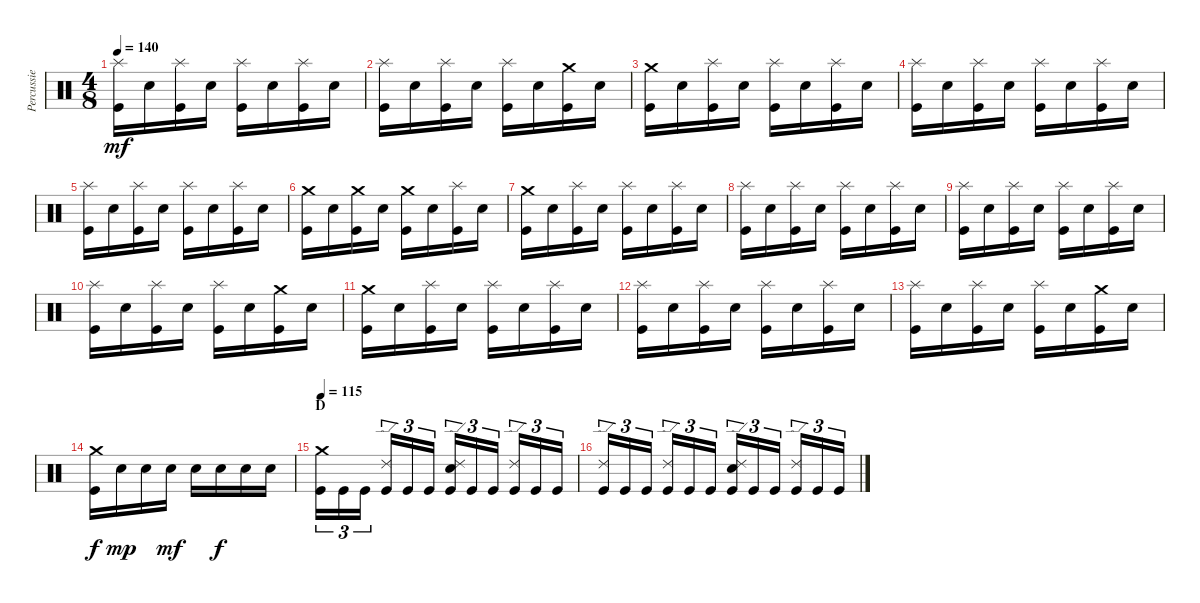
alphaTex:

\track ("Percussie" "Percussie") {instrument percussion}
\staff {score}
\articulation defaults
\ts (4 8)
\tempo 140
\clef neutral
\ks c
("Splash (hit)" "Kick (hit)").16{dy mf} "Electric Snare (hit)".16 ("Splash (hit)" "Kick (hit)").16 "Electric Snare (hit)".16 ("Splash (hit)" "Kick (hit)").16 "Electric Snare (hit)".16 ("Splash (hit)" "Kick (hit)").16 "Electric Snare (hit)".16 |
("Splash (hit)" "Kick (hit)").16 "Electric Snare (hit)".16 ("Splash (hit)" "Kick (hit)").16 "Electric Snare (hit)".16 ("Splash (hit)" "Kick (hit)").16 "Electric Snare (hit)".16 ("Crash medium (hit)" "Kick (hit)").16 "Electric Snare (hit)".16 |
("Crash medium (hit)" "Kick (hit)").16 "Electric Snare (hit)".16 ("Splash (hit)" "Kick (hit)").16 "Electric Snare (hit)".16 ("Splash (hit)" "Kick (hit)").16 "Electric Snare (hit)".16 ("Splash (hit)" "Kick (hit)").16 "Electric Snare (hit)".16 |
("Splash (hit)" "Kick (hit)").16 "Electric Snare (hit)".16 ("Splash (hit)" "Kick (hit)").16 "Electric Snare (hit)".16 ("Splash (hit)" "Kick (hit)").16 "Electric Snare (hit)".16 ("Splash (hit)" "Kick (hit)").16 "Electric Snare (hit)".16 |
("Splash (hit)" "Kick (hit)").16 "Electric Snare (hit)".16 ("Splash (hit)" "Kick (hit)").16 "Electric Snare (hit)".16 ("Splash (hit)" "Kick (hit)").16 "Electric Snare (hit)".16 ("Splash (hit)" "Kick (hit)").16 "Electric Snare (hit)".16 |
("Crash medium (hit)" "Kick (hit)").16 "Electric Snare (hit)".16 ("Crash medium (hit)" "Kick (hit)").16 "Electric Snare (hit)".16 ("Crash medium (hit)" "Kick (hit)").16 "Electric Snare (hit)".16 ("Splash (hit)" "Kick (hit)").16 "Electric Snare (hit)".16 |
("Crash medium (hit)" "Kick (hit)").16 "Electric Snare (hit)".16 ("Splash (hit)" "Kick (hit)").16 "Electric Snare (hit)".16 ("Splash (hit)" "Kick (hit)").16 "Electric Snare (hit)".16 ("Splash (hit)" "Kick (hit)").16 "Electric Snare (hit)".16 |
("Splash (hit)" "Kick (hit)").16 "Electric Snare (hit)".16 ("Splash (hit)" "Kick (hit)").16 "Electric Snare (hit)".16 ("Splash (hit)" "Kick (hit)").16 "Electric Snare (hit)".16 ("Splash (hit)" "Kick (hit)").16 "Electric Snare (hit)".16 |
("Splash (hit)" "Kick (hit)").16 "Electric Snare (hit)".16 ("Splash (hit)" "Kick (hit)").16 "Electric Snare (hit)".16 ("Splash (hit)" "Kick (hit)").16 "Electric Snare (hit)".16 ("Splash (hit)" "Kick (hit)").16 "Electric Snare (hit)".16 |
("Splash (hit)" "Kick (hit)").16 "Electric Snare (hit)".16 ("Splash (hit)" "Kick (hit)").16 "Electric Snare (hit)".16 ("Splash (hit)" "Kick (hit)").16 "Electric Snare (hit)".16 ("Crash medium (hit)" "Kick (hit)").16 "Electric Snare (hit)".16 |
("Crash medium (hit)" "Kick (hit)").16 "Electric Snare (hit)".16 ("Splash (hit)" "Kick (hit)").16 "Electric Snare (hit)".16 ("Splash (hit)" "Kick (hit)").16 "Electric Snare (hit)".16 ("Splash (hit)" "Kick (hit)").16 "Electric Snare (hit)".16 |
("Splash (hit)" "Kick (hit)").16 "Electric Snare (hit)".16 ("Splash (hit)" "Kick (hit)").16 "Electric Snare (hit)".16 ("Splash (hit)" "Kick (hit)").16 "Electric Snare (hit)".16 ("Splash (hit)" "Kick (hit)").16 "Electric Snare (hit)".16 |
("Splash (hit)" "Kick (hit)").16 "Electric Snare (hit)".16 ("Splash (hit)" "Kick (hit)").16 "Electric Snare (hit)".16 ("Splash (hit)" "Kick (hit)").16 "Electric Snare (hit)".16 ("Crash medium (hit)" "Kick (hit)").16 "Electric Snare (hit)".16 |
("Crash medium (hit)" "Kick (hit)").16{dy f} "Electric Snare (hit)".16{dy mp} "Electric Snare (hit)".16 "Electric Snare (hit)".16{dy mf} "Electric Snare (hit)".16 "Electric Snare (hit)".16{dy f} "Electric Snare (hit)".16 "Electric Snare (hit)".16 |
\section ("" "D")
\tempo 115
("Crash medium (hit)" "Kick (hit)").16{tu (3 2)} "Kick (hit)".16{tu (3 2)} "Kick (hit)".16{tu (3 2)} ("Ride (edge) 2" "Kick (hit)").16{tu (3 2)} "Kick (hit)".16{tu (3 2)} "Kick (hit)".16{tu (3 2)} ("Ride (edge) 2" "Electric Snare (hit)" "Kick (hit)").16{tu (3 2)} "Kick (hit)".16{tu (3 2)} "Kick (hit)".16{tu (3 2)} ("Ride (edge) 2" "Kick (hit)").16{tu (3 2)} "Kick (hit)".16{tu (3 2)} "Kick (hit)".16{tu (3 2)} |
("Ride (edge) 2" "Kick (hit)").16{tu (3 2)} "Kick (hit)".16{tu (3 2)} "Kick (hit)".16{tu (3 2)} ("Ride (edge) 2" "Kick (hit)").16{tu (3 2)} "Kick (hit)".16{tu (3 2)} "Kick (hit)".16{tu (3 2)} ("Ride (edge) 2" "Electric Snare (hit)" "Kick (hit)").16{tu (3 2)} "Kick (hit)".16{tu (3 2)} "Kick (hit)".16{tu (3 2)} ("Ride (edge) 2" "Kick (hit)").16{tu (3 2)} "Kick (hit)".16{tu (3 2)} "Kick (hit)".16{tu (3 2)}
